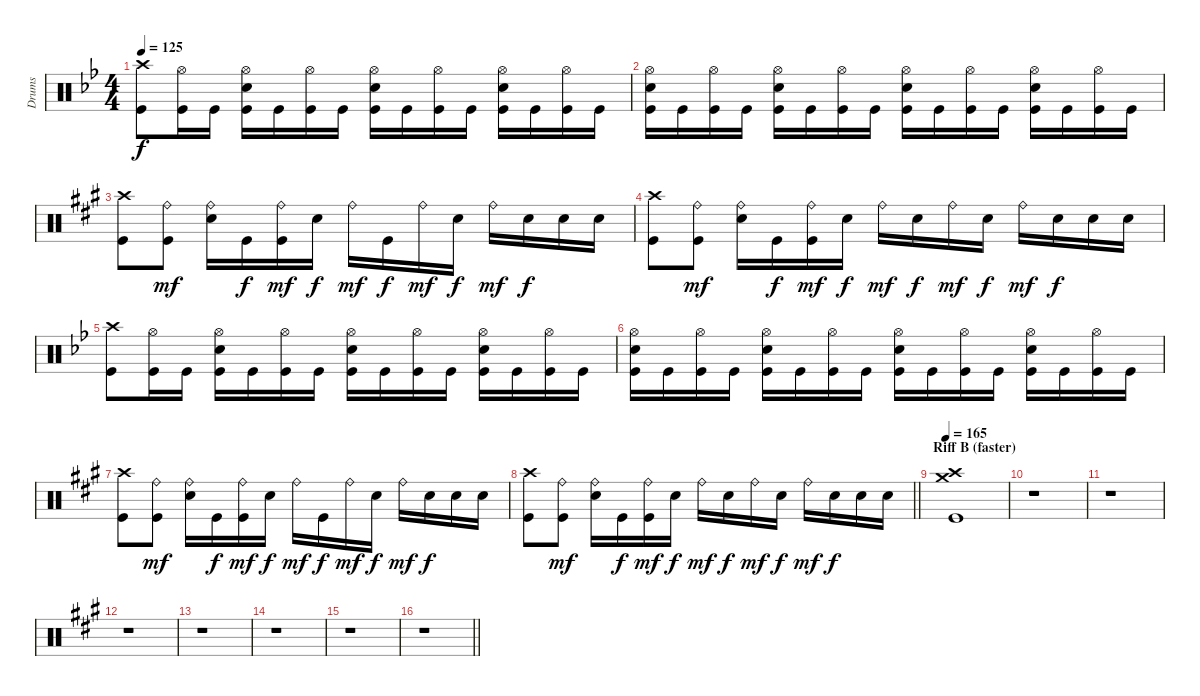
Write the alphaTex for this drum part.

\track ("Drums" "Drums") {instrument percussion}
\staff {score}
\articulation defaults
\ts (4 4)
\tempo 125
\clef neutral
\ks gminor
("Crash high (hit)" "Kick (hit)").8{dy f} ("Hi-Hat (open)" "Kick (hit)").16 "Kick (hit)".16 ("Hi-Hat (open)" "Snare (hit) 2" "Kick (hit)").16 "Kick (hit)".16 ("Hi-Hat (open)" "Kick (hit)").16 "Kick (hit)".16 ("Hi-Hat (open)" "Snare (hit) 2" "Kick (hit)").16 "Kick (hit)".16 ("Hi-Hat (open)" "Kick (hit)").16 "Kick (hit)".16 ("Hi-Hat (open)" "Snare (hit) 2" "Kick (hit)").16 "Kick (hit)".16 ("Hi-Hat (open)" "Kick (hit)").16 "Kick (hit)".16 |
("Hi-Hat (open)" "Snare (hit) 2" "Kick (hit)").16 "Kick (hit)".16 ("Hi-Hat (open)" "Kick (hit)").16 "Kick (hit)".16 ("Hi-Hat (open)" "Snare (hit) 2" "Kick (hit)").16 "Kick (hit)".16 ("Hi-Hat (open)" "Kick (hit)").16 "Kick (hit)".16 ("Hi-Hat (open)" "Snare (hit) 2" "Kick (hit)").16 "Kick (hit)".16 ("Hi-Hat (open)" "Kick (hit)").16 "Kick (hit)".16 ("Hi-Hat (open)" "Snare (hit) 2" "Kick (hit)").16 "Kick (hit)".16 ("Hi-Hat (open)" "Kick (hit)").16 "Kick (hit)".16 |
\ks f#minor
("Crash high (hit)" "Kick (hit)").8 ("Ride (bell)" "Kick (hit)").8{dy mf} ("Ride (bell)" "Snare (hit) 2").16 "Kick (hit)".16{dy f} ("Ride (bell)" "Kick (hit)").16{dy mf} "Snare (hit) 2".16{dy f} "Ride (bell)".16{dy mf} "Kick (hit)".16{dy f} "Ride (bell)".16{dy mf} "Snare (hit) 2".16{dy f} "Ride (bell)".16{dy mf} "Snare (hit) 2".16{dy f} "Snare (hit) 2".16 "Snare (hit) 2".16 |
("Crash high (hit)" "Kick (hit)").8 ("Ride (bell)" "Kick (hit)").8{dy mf} ("Ride (bell)" "Snare (hit) 2").16 "Kick (hit)".16{dy f} ("Ride (bell)" "Kick (hit)").16{dy mf} "Snare (hit) 2".16{dy f} "Ride (bell)".16{dy mf} "Snare (hit) 2".16{dy f} "Ride (bell)".16{dy mf} "Snare (hit) 2".16{dy f} "Ride (bell)".16{dy mf} "Snare (hit) 2".16{dy f} "Snare (hit) 2".16 "Snare (hit) 2".16 |
\ks gminor
("Crash high (hit)" "Kick (hit)").8 ("Hi-Hat (open)" "Kick (hit)").16 "Kick (hit)".16 ("Hi-Hat (open)" "Snare (hit) 2" "Kick (hit)").16 "Kick (hit)".16 ("Hi-Hat (open)" "Kick (hit)").16 "Kick (hit)".16 ("Hi-Hat (open)" "Snare (hit) 2" "Kick (hit)").16 "Kick (hit)".16 ("Hi-Hat (open)" "Kick (hit)").16 "Kick (hit)".16 ("Hi-Hat (open)" "Snare (hit) 2" "Kick (hit)").16 "Kick (hit)".16 ("Hi-Hat (open)" "Kick (hit)").16 "Kick (hit)".16 |
("Hi-Hat (open)" "Snare (hit) 2" "Kick (hit)").16 "Kick (hit)".16 ("Hi-Hat (open)" "Kick (hit)").16 "Kick (hit)".16 ("Hi-Hat (open)" "Snare (hit) 2" "Kick (hit)").16 "Kick (hit)".16 ("Hi-Hat (open)" "Kick (hit)").16 "Kick (hit)".16 ("Hi-Hat (open)" "Snare (hit) 2" "Kick (hit)").16 "Kick (hit)".16 ("Hi-Hat (open)" "Kick (hit)").16 "Kick (hit)".16 ("Hi-Hat (open)" "Snare (hit) 2" "Kick (hit)").16 "Kick (hit)".16 ("Hi-Hat (open)" "Kick (hit)").16 "Kick (hit)".16 |
\ks f#minor
("Crash high (hit)" "Kick (hit)").8 ("Ride (bell)" "Kick (hit)").8{dy mf} ("Ride (bell)" "Snare (hit) 2").16 "Kick (hit)".16{dy f} ("Ride (bell)" "Kick (hit)").16{dy mf} "Snare (hit) 2".16{dy f} "Ride (bell)".16{dy mf} "Kick (hit)".16{dy f} "Ride (bell)".16{dy mf} "Snare (hit) 2".16{dy f} "Ride (bell)".16{dy mf} "Snare (hit) 2".16{dy f} "Snare (hit) 2".16 "Snare (hit) 2".16 |
\barLineRight lightlight
("Crash high (hit)" "Kick (hit)").8 ("Ride (bell)" "Kick (hit)").8{dy mf} ("Ride (bell)" "Snare (hit) 2").16 "Kick (hit)".16{dy f} ("Ride (bell)" "Kick (hit)").16{dy mf} "Snare (hit) 2".16{dy f} "Ride (bell)".16{dy mf} "Snare (hit) 2".16{dy f} "Ride (bell)".16{dy mf} "Snare (hit) 2".16{dy f} "Ride (bell)".16{dy mf} "Snare (hit) 2".16{dy f} "Snare (hit) 2".16 "Snare (hit) 2".16 |
\section ("" "Riff B (faster)")
\tempo 165
("Crash medium (hit)" "Crash high (hit)" "Kick (hit)").1 |
r.1 |
r.1 |
r.1 |
r.1 |
r.1 |
r.1 |
\barLineRight lightlight
r.1
